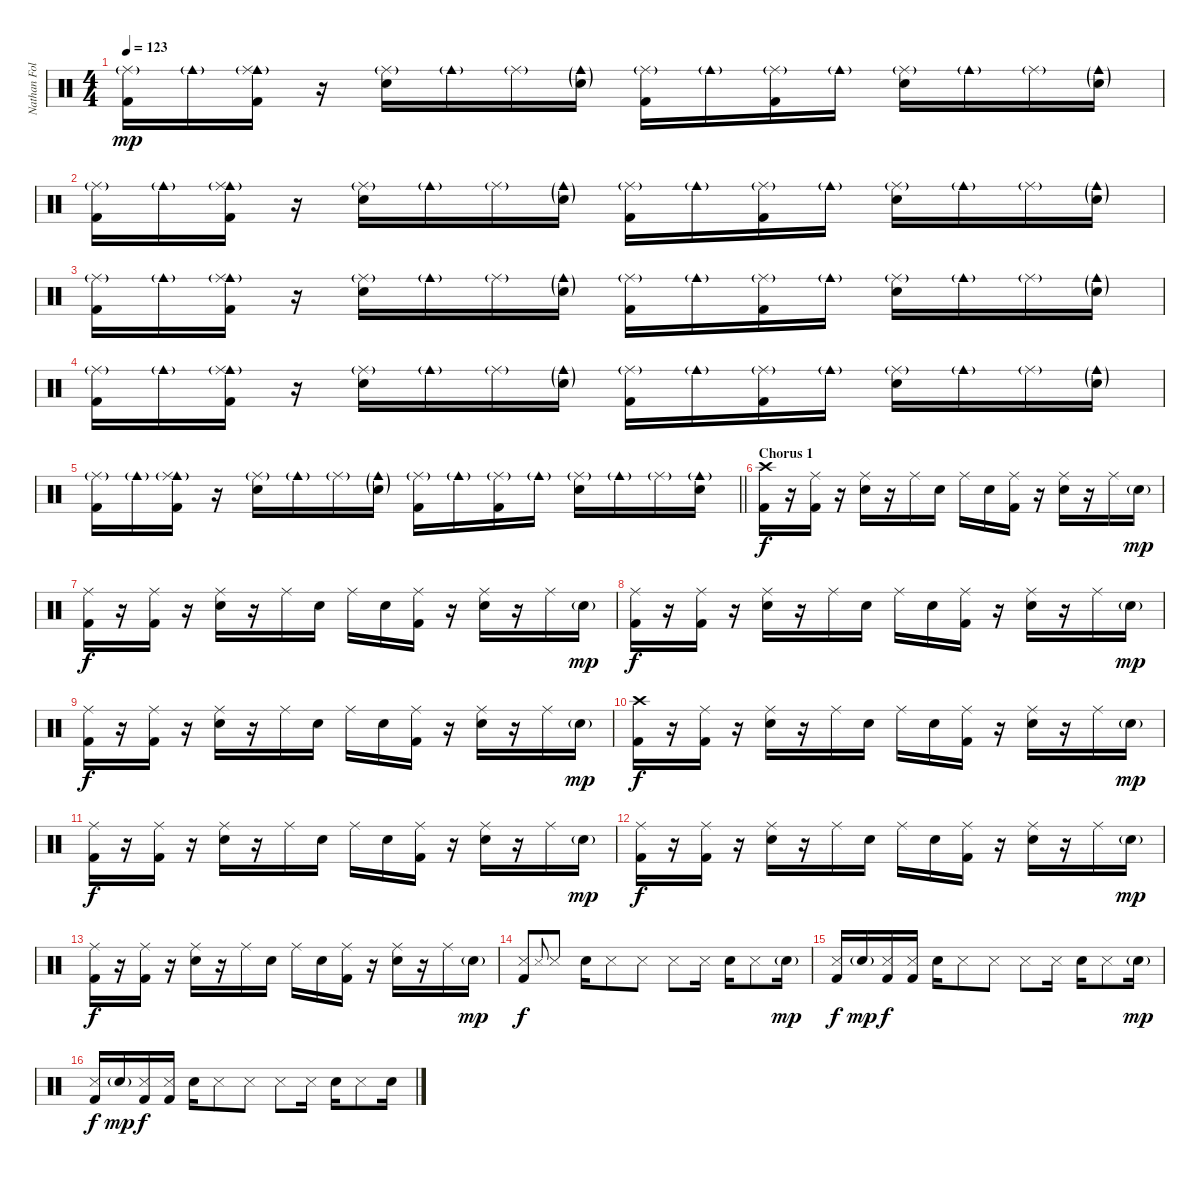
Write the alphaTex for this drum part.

\track ("Nathan Followill" "Nathan Fol") {instrument percussion}
\staff {score}
\articulation defaults
\ts (4 4)
\tempo 123
\clef neutral
\ks c
("Ride (middle)"{g} "Kick (hit) 2").16{dy mp} "Cowbell medium (hit)"{g}.16 ("Cowbell medium (hit)"{g} "Ride (middle)"{g} "Kick (hit) 2").16 r.16 ("Ride (middle)"{g} "Electric Snare (hit)").16 "Cowbell medium (hit)"{g}.16 "Ride (middle)"{g}.16 ("Cowbell medium (hit)"{g} "Electric Snare (hit)"{g}).16 ("Ride (middle)"{g} "Kick (hit) 2").16 "Cowbell medium (hit)"{g}.16 ("Ride (middle)"{g} "Kick (hit) 2").16 "Cowbell medium (hit)"{g}.16 ("Ride (middle)"{g} "Electric Snare (hit)").16 "Cowbell medium (hit)"{g}.16 "Ride (middle)"{g}.16 ("Cowbell medium (hit)"{g} "Electric Snare (hit)"{g}).16 |
("Ride (middle)"{g} "Kick (hit) 2").16 "Cowbell medium (hit)"{g}.16 ("Cowbell medium (hit)"{g} "Ride (middle)"{g} "Kick (hit) 2").16 r.16 ("Ride (middle)"{g} "Electric Snare (hit)").16 "Cowbell medium (hit)"{g}.16 "Ride (middle)"{g}.16 ("Cowbell medium (hit)"{g} "Electric Snare (hit)"{g}).16 ("Ride (middle)"{g} "Kick (hit) 2").16 "Cowbell medium (hit)"{g}.16 ("Ride (middle)"{g} "Kick (hit) 2").16 "Cowbell medium (hit)"{g}.16 ("Ride (middle)"{g} "Electric Snare (hit)").16 "Cowbell medium (hit)"{g}.16 "Ride (middle)"{g}.16 ("Cowbell medium (hit)"{g} "Electric Snare (hit)"{g}).16 |
("Ride (middle)"{g} "Kick (hit) 2").16 "Cowbell medium (hit)"{g}.16 ("Cowbell medium (hit)"{g} "Ride (middle)"{g} "Kick (hit) 2").16 r.16 ("Ride (middle)"{g} "Electric Snare (hit)").16 "Cowbell medium (hit)"{g}.16 "Ride (middle)"{g}.16 ("Cowbell medium (hit)"{g} "Electric Snare (hit)"{g}).16 ("Ride (middle)"{g} "Kick (hit) 2").16 "Cowbell medium (hit)"{g}.16 ("Ride (middle)"{g} "Kick (hit) 2").16 "Cowbell medium (hit)"{g}.16 ("Ride (middle)"{g} "Electric Snare (hit)").16 "Cowbell medium (hit)"{g}.16 "Ride (middle)"{g}.16 ("Cowbell medium (hit)"{g} "Electric Snare (hit)"{g}).16 |
("Ride (middle)"{g} "Kick (hit) 2").16 "Cowbell medium (hit)"{g}.16 ("Cowbell medium (hit)"{g} "Ride (middle)"{g} "Kick (hit) 2").16 r.16 ("Ride (middle)"{g} "Electric Snare (hit)").16 "Cowbell medium (hit)"{g}.16 "Ride (middle)"{g}.16 ("Cowbell medium (hit)"{g} "Electric Snare (hit)"{g}).16 ("Ride (middle)"{g} "Kick (hit) 2").16 "Cowbell medium (hit)"{g}.16 ("Ride (middle)"{g} "Kick (hit) 2").16 "Cowbell medium (hit)"{g}.16 ("Ride (middle)"{g} "Electric Snare (hit)").16 "Cowbell medium (hit)"{g}.16 "Ride (middle)"{g}.16 ("Cowbell medium (hit)"{g} "Electric Snare (hit)"{g}).16 |
\barLineRight lightlight
("Ride (middle)"{g} "Kick (hit) 2").16 "Cowbell medium (hit)"{g}.16 ("Cowbell medium (hit)"{g} "Ride (middle)"{g} "Kick (hit) 2").16 r.16 ("Ride (middle)"{g} "Electric Snare (hit)").16 "Cowbell medium (hit)"{g}.16 "Ride (middle)"{g}.16 ("Cowbell medium (hit)"{g} "Electric Snare (hit)"{g}).16 ("Ride (middle)"{g} "Kick (hit) 2").16 "Cowbell medium (hit)"{g}.16 ("Ride (middle)"{g} "Kick (hit) 2").16 "Cowbell medium (hit)"{g}.16 ("Ride (middle)"{g} "Electric Snare (hit)").16 "Cowbell medium (hit)"{g}.16 "Ride (middle)"{g}.16 ("Cowbell medium (hit)"{g} "Electric Snare (hit)").16 |
\section ("" "Chorus 1")
("Crash high (hit)" "Kick (hit) 2").16{dy f} r.16 ("Ride (middle)" "Kick (hit) 2").16 r.16 ("Ride (middle)" "Electric Snare (hit)").16 r.16 "Ride (middle)".16 "Electric Snare (hit)".16 "Ride (middle)".16 "Electric Snare (hit)".16 ("Ride (middle)" "Kick (hit) 2").16 r.16 ("Ride (middle)" "Electric Snare (hit)").16 r.16 "Ride (middle)".16 "Electric Snare (hit)"{g}.16{dy mp} |
("Ride (middle)" "Kick (hit) 2").16{dy f} r.16 ("Ride (middle)" "Kick (hit) 2").16 r.16 ("Ride (middle)" "Electric Snare (hit)").16 r.16 "Ride (middle)".16 "Electric Snare (hit)".16 "Ride (middle)".16 "Electric Snare (hit)".16 ("Ride (middle)" "Kick (hit) 2").16 r.16 ("Ride (middle)" "Electric Snare (hit)").16 r.16 "Ride (middle)".16 "Electric Snare (hit)"{g}.16{dy mp} |
("Ride (middle)" "Kick (hit) 2").16{dy f} r.16 ("Ride (middle)" "Kick (hit) 2").16 r.16 ("Ride (middle)" "Electric Snare (hit)").16 r.16 "Ride (middle)".16 "Electric Snare (hit)".16 "Ride (middle)".16 "Electric Snare (hit)".16 ("Ride (middle)" "Kick (hit) 2").16 r.16 ("Ride (middle)" "Electric Snare (hit)").16 r.16 "Ride (middle)".16 "Electric Snare (hit)"{g}.16{dy mp} |
("Ride (middle)" "Kick (hit) 2").16{dy f} r.16 ("Ride (middle)" "Kick (hit) 2").16 r.16 ("Ride (middle)" "Electric Snare (hit)").16 r.16 "Ride (middle)".16 "Electric Snare (hit)".16 "Ride (middle)".16 "Electric Snare (hit)".16 ("Ride (middle)" "Kick (hit) 2").16 r.16 ("Ride (middle)" "Electric Snare (hit)").16 r.16 "Ride (middle)".16 "Electric Snare (hit)"{g}.16{dy mp} |
("Crash high (hit)" "Kick (hit) 2").16{dy f} r.16 ("Ride (middle)" "Kick (hit) 2").16 r.16 ("Ride (middle)" "Electric Snare (hit)").16 r.16 "Ride (middle)".16 "Electric Snare (hit)".16 "Ride (middle)".16 "Electric Snare (hit)".16 ("Ride (middle)" "Kick (hit) 2").16 r.16 ("Ride (middle)" "Electric Snare (hit)").16 r.16 "Ride (middle)".16 "Electric Snare (hit)"{g}.16{dy mp} |
("Ride (middle)" "Kick (hit) 2").16{dy f} r.16 ("Ride (middle)" "Kick (hit) 2").16 r.16 ("Ride (middle)" "Electric Snare (hit)").16 r.16 "Ride (middle)".16 "Electric Snare (hit)".16 "Ride (middle)".16 "Electric Snare (hit)".16 ("Ride (middle)" "Kick (hit) 2").16 r.16 ("Ride (middle)" "Electric Snare (hit)").16 r.16 "Ride (middle)".16 "Electric Snare (hit)"{g}.16{dy mp} |
("Ride (middle)" "Kick (hit) 2").16{dy f} r.16 ("Ride (middle)" "Kick (hit) 2").16 r.16 ("Ride (middle)" "Electric Snare (hit)").16 r.16 "Ride (middle)".16 "Electric Snare (hit)".16 "Ride (middle)".16 "Electric Snare (hit)".16 ("Ride (middle)" "Kick (hit) 2").16 r.16 ("Ride (middle)" "Electric Snare (hit)").16 r.16 "Ride (middle)".16 "Electric Snare (hit)"{g}.16{dy mp} |
("Ride (middle)" "Kick (hit) 2").16{dy f} r.16 ("Ride (middle)" "Kick (hit) 2").16 r.16 ("Ride (middle)" "Electric Snare (hit)").16 r.16 "Ride (middle)".16 "Electric Snare (hit)".16 "Ride (middle)".16 "Electric Snare (hit)".16 ("Ride (middle)" "Kick (hit) 2").16 r.16 ("Ride (middle)" "Electric Snare (hit)").16 r.16 "Ride (middle)".16 "Electric Snare (hit)"{g}.16{dy mp} |
("Snare (side stick) 3" "Kick (hit) 2").8{dy f} "Snare (side stick) 3".8{gr onbeat} "Snare (side stick) 3".8 "Electric Snare (hit)".16 "Snare (side stick) 3".8 "Snare (side stick) 3".8 "Snare (side stick) 3".8 "Snare (side stick) 3".16 "Electric Snare (hit)".16 "Snare (side stick) 3".8 "Electric Snare (hit)"{g}.16{dy mp} |
("Snare (side stick) 3" "Kick (hit) 2").16{dy f} "Electric Snare (hit)"{g}.16{dy mp} ("Snare (side stick) 3" "Kick (hit) 2").16{dy f} ("Snare (side stick) 3" "Kick (hit) 2").16 "Electric Snare (hit)".16 "Snare (side stick) 3".8 "Snare (side stick) 3".8 "Snare (side stick) 3".8 "Snare (side stick) 3".16 "Electric Snare (hit)".16 "Snare (side stick) 3".8 "Electric Snare (hit)"{g}.16{dy mp} |
("Snare (side stick) 3" "Kick (hit) 2").16{dy f} "Electric Snare (hit)"{g}.16{dy mp} ("Snare (side stick) 3" "Kick (hit) 2").16{dy f} ("Snare (side stick) 3" "Kick (hit) 2").16 "Electric Snare (hit)".16 "Snare (side stick) 3".8 "Snare (side stick) 3".8 "Snare (side stick) 3".8 "Snare (side stick) 3".16 "Electric Snare (hit)".16 "Snare (side stick) 3".8 "Electric Snare (hit)".16
